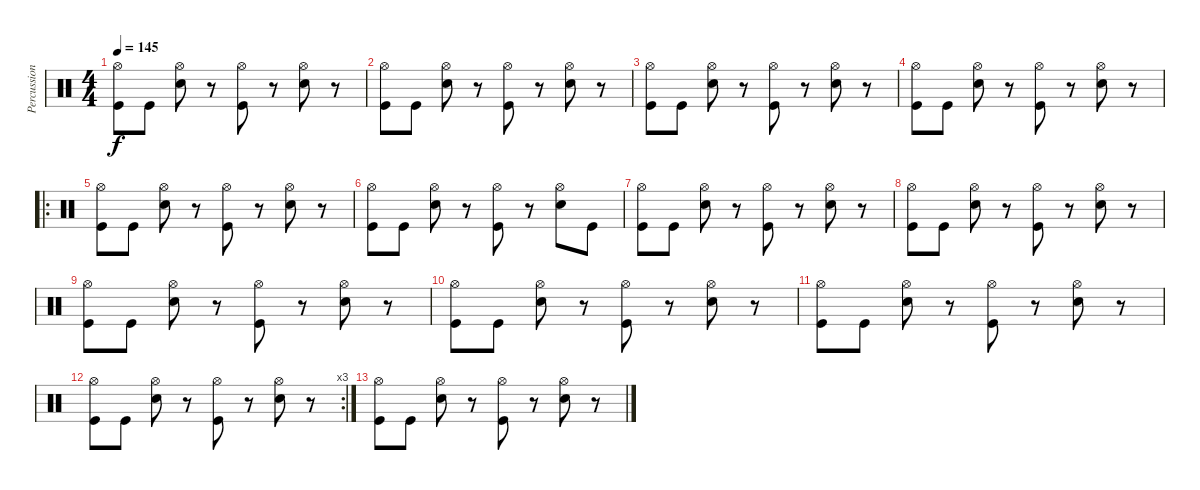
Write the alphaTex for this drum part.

\track ("Percussion" "Percussion") {instrument percussion}
\staff {score}
\articulation defaults
\ts (4 4)
\tempo 145
\clef neutral
\ks c
("Kick (hit)" "Hi-Hat (open)").8{dy f} "Kick (hit)".8 ("Snare (hit) 2" "Hi-Hat (open)").8 r.8 ("Kick (hit)" "Hi-Hat (open)").8 r.8 ("Snare (hit) 2" "Hi-Hat (open)").8 r.8 |
("Kick (hit)" "Hi-Hat (open)").8 "Kick (hit)".8 ("Snare (hit) 2" "Hi-Hat (open)").8 r.8 ("Kick (hit)" "Hi-Hat (open)").8 r.8 ("Snare (hit) 2" "Hi-Hat (open)").8 r.8 |
("Kick (hit)" "Hi-Hat (open)").8 "Kick (hit)".8 ("Snare (hit) 2" "Hi-Hat (open)").8 r.8 ("Kick (hit)" "Hi-Hat (open)").8 r.8 ("Snare (hit) 2" "Hi-Hat (open)").8 r.8 |
("Kick (hit)" "Hi-Hat (open)").8 "Kick (hit)".8 ("Snare (hit) 2" "Hi-Hat (open)").8 r.8 ("Kick (hit)" "Hi-Hat (open)").8 r.8 ("Snare (hit) 2" "Hi-Hat (open)").8 r.8 |
\ro
("Kick (hit)" "Hi-Hat (open)").8 "Kick (hit)".8 ("Snare (hit) 2" "Hi-Hat (open)").8 r.8 ("Kick (hit)" "Hi-Hat (open)").8 r.8 ("Snare (hit) 2" "Hi-Hat (open)").8 r.8 |
("Kick (hit)" "Hi-Hat (open)").8 "Kick (hit)".8 ("Snare (hit) 2" "Hi-Hat (open)").8 r.8 ("Kick (hit)" "Hi-Hat (open)").8 r.8 ("Snare (hit) 2" "Hi-Hat (open)").8 "Kick (hit)".8 |
("Kick (hit)" "Hi-Hat (open)").8 "Kick (hit)".8 ("Snare (hit) 2" "Hi-Hat (open)").8 r.8 ("Kick (hit)" "Hi-Hat (open)").8 r.8 ("Snare (hit) 2" "Hi-Hat (open)").8 r.8 |
("Kick (hit)" "Hi-Hat (open)").8 "Kick (hit)".8 ("Snare (hit) 2" "Hi-Hat (open)").8 r.8 ("Kick (hit)" "Hi-Hat (open)").8 r.8 ("Snare (hit) 2" "Hi-Hat (open)").8 r.8 |
("Kick (hit)" "Hi-Hat (open)").8 "Kick (hit)".8 ("Snare (hit) 2" "Hi-Hat (open)").8 r.8 ("Kick (hit)" "Hi-Hat (open)").8 r.8 ("Snare (hit) 2" "Hi-Hat (open)").8 r.8 |
("Kick (hit)" "Hi-Hat (open)").8 "Kick (hit)".8 ("Snare (hit) 2" "Hi-Hat (open)").8 r.8 ("Kick (hit)" "Hi-Hat (open)").8 r.8 ("Snare (hit) 2" "Hi-Hat (open)").8 r.8 |
("Kick (hit)" "Hi-Hat (open)").8 "Kick (hit)".8 ("Snare (hit) 2" "Hi-Hat (open)").8 r.8 ("Kick (hit)" "Hi-Hat (open)").8 r.8 ("Snare (hit) 2" "Hi-Hat (open)").8 r.8 |
\rc 3
("Kick (hit)" "Hi-Hat (open)").8 "Kick (hit)".8 ("Snare (hit) 2" "Hi-Hat (open)").8 r.8 ("Kick (hit)" "Hi-Hat (open)").8 r.8 ("Snare (hit) 2" "Hi-Hat (open)").8 r.8 |
("Kick (hit)" "Hi-Hat (open)").8 "Kick (hit)".8 ("Snare (hit) 2" "Hi-Hat (open)").8 r.8 ("Kick (hit)" "Hi-Hat (open)").8 r.8 ("Snare (hit) 2" "Hi-Hat (open)").8 r.8
